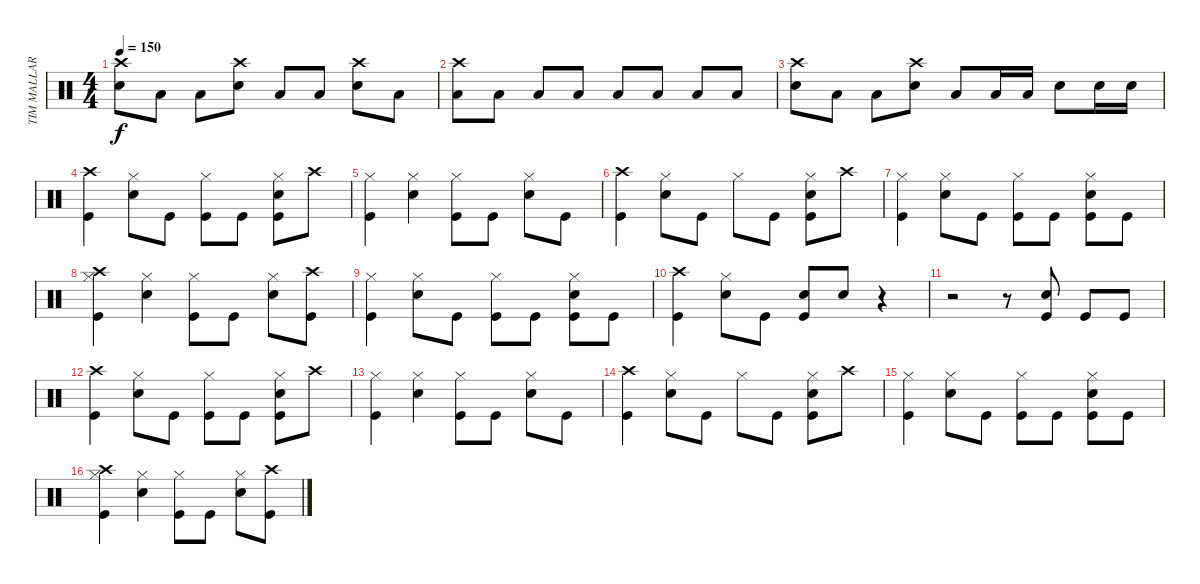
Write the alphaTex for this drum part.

\track ("TIM MALLARE - drums" "TIM MALLAR") {instrument percussion}
\staff {score}
\articulation defaults
\ts (4 4)
\tempo 150
\clef neutral
\ks c
("Crash high (hit)" "Electric Snare (hit)").8{dy f} "Low Tom (hit)".8 "Low Tom (hit)".8 ("Crash high (hit)" "Electric Snare (hit)").8 "Low Tom (hit)".8 "Low Tom (hit)".8 ("Crash high (hit)" "Electric Snare (hit)").8 "Low Tom (hit)".8 |
("Crash high (hit)" "Low Tom (hit)").8 "Low Tom (hit)".8 "Low Tom (hit)".8 "Low Tom (hit)".8 "Low Tom (hit)".8 "Low Tom (hit)".8 "Low Tom (hit)".8 "Low Tom (hit)".8 |
("Crash high (hit)" "Electric Snare (hit)").8 "Low Tom (hit)".8 "Low Tom (hit)".8 ("Crash high (hit)" "Electric Snare (hit)").8 "Low Tom (hit)".8 "Low Tom (hit)".16 "Low Tom (hit)".16 "Electric Snare (hit)".8 "Electric Snare (hit)".16 "Electric Snare (hit)".16 |
("Crash high (hit)" "Kick (hit)").4 ("Hi-Hat (closed)" "Electric Snare (hit)").8 "Kick (hit)".8 ("Hi-Hat (closed)" "Kick (hit)").8 "Kick (hit)".8 ("Hi-Hat (closed)" "Electric Snare (hit)" "Kick (hit)").8 "Crash high (hit)".8 |
("Hi-Hat (closed)" "Kick (hit)").4 ("Hi-Hat (closed)" "Electric Snare (hit)").4 ("Hi-Hat (closed)" "Kick (hit)").8 "Kick (hit)".8 ("Hi-Hat (closed)" "Electric Snare (hit)").8 "Kick (hit)".8 |
("Crash high (hit)" "Kick (hit)").4 ("Hi-Hat (closed)" "Electric Snare (hit)").8 "Kick (hit)".8 "Hi-Hat (closed)".8 "Kick (hit)".8 ("Hi-Hat (closed)" "Electric Snare (hit)" "Kick (hit)").8 "Crash high (hit)".8 |
("Hi-Hat (closed)" "Kick (hit)").4 ("Hi-Hat (closed)" "Electric Snare (hit)").8 "Kick (hit)".8 ("Hi-Hat (closed)" "Kick (hit)").8 "Kick (hit)".8 ("Hi-Hat (closed)" "Electric Snare (hit)" "Kick (hit)").8 "Kick (hit)".8 |
("Crash high (hit)" "Hi-Hat (closed)" "Kick (hit)").4 ("Hi-Hat (closed)" "Electric Snare (hit)").4 ("Hi-Hat (closed)" "Kick (hit)").8 "Kick (hit)".8 ("Hi-Hat (closed)" "Electric Snare (hit)").8 ("Crash high (hit)" "Kick (hit)").8 |
("Hi-Hat (closed)" "Kick (hit)").4 ("Hi-Hat (closed)" "Electric Snare (hit)").8 "Kick (hit)".8 ("Hi-Hat (closed)" "Kick (hit)").8 "Kick (hit)".8 ("Hi-Hat (closed)" "Electric Snare (hit)" "Kick (hit)").8 "Kick (hit)".8 |
("Crash high (hit)" "Kick (hit)").4 ("Hi-Hat (closed)" "Electric Snare (hit)").8 "Kick (hit)".8 ("Electric Snare (hit)" "Kick (hit)").8 "Electric Snare (hit)".8 r.4 |
r.2 r.8 ("Electric Snare (hit)" "Kick (hit)").8 "Kick (hit)".8 "Kick (hit)".8 |
("Crash high (hit)" "Kick (hit)").4 ("Hi-Hat (closed)" "Electric Snare (hit)").8 "Kick (hit)".8 ("Hi-Hat (closed)" "Kick (hit)").8 "Kick (hit)".8 ("Hi-Hat (closed)" "Electric Snare (hit)" "Kick (hit)").8 "Crash high (hit)".8 |
("Hi-Hat (closed)" "Kick (hit)").4 ("Hi-Hat (closed)" "Electric Snare (hit)").4 ("Hi-Hat (closed)" "Kick (hit)").8 "Kick (hit)".8 ("Hi-Hat (closed)" "Electric Snare (hit)").8 "Kick (hit)".8 |
("Crash high (hit)" "Kick (hit)").4 ("Hi-Hat (closed)" "Electric Snare (hit)").8 "Kick (hit)".8 "Hi-Hat (closed)".8 "Kick (hit)".8 ("Hi-Hat (closed)" "Electric Snare (hit)" "Kick (hit)").8 "Crash high (hit)".8 |
("Hi-Hat (closed)" "Kick (hit)").4 ("Hi-Hat (closed)" "Electric Snare (hit)").8 "Kick (hit)".8 ("Hi-Hat (closed)" "Kick (hit)").8 "Kick (hit)".8 ("Hi-Hat (closed)" "Electric Snare (hit)" "Kick (hit)").8 "Kick (hit)".8 |
("Crash high (hit)" "Hi-Hat (closed)" "Kick (hit)").4 ("Hi-Hat (closed)" "Electric Snare (hit)").4 ("Hi-Hat (closed)" "Kick (hit)").8 "Kick (hit)".8 ("Hi-Hat (closed)" "Electric Snare (hit)").8 ("Crash high (hit)" "Kick (hit)").8
